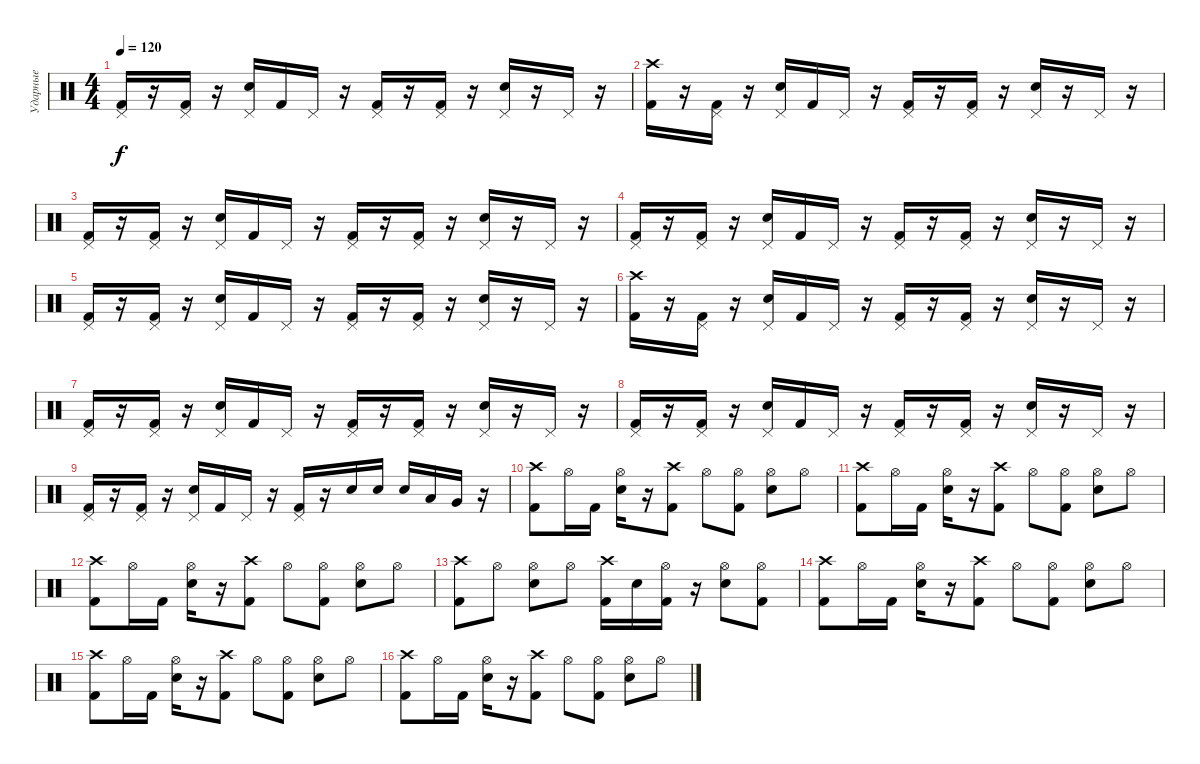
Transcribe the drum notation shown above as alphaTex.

\track ("Ударные" "Ударные") {instrument percussion}
\staff {score}
\articulation defaults
\ts (4 4)
\tempo 120
\clef neutral
\ks c
("Pedal Hi-Hat (hit)" "Kick (hit) 2").16{dy f} r.16 ("Pedal Hi-Hat (hit)" "Kick (hit) 2").16 r.16 ("Pedal Hi-Hat (hit)" "Electric Snare (hit)").16 "Kick (hit) 2".16 "Pedal Hi-Hat (hit)".16 r.16 ("Pedal Hi-Hat (hit)" "Kick (hit) 2").16 r.16 ("Pedal Hi-Hat (hit)" "Kick (hit) 2").16 r.16 ("Pedal Hi-Hat (hit)" "Electric Snare (hit)").16 r.16 "Pedal Hi-Hat (hit)".16 r.16 |
("Crash high (hit)" "Kick (hit) 2").16 r.16 ("Pedal Hi-Hat (hit)" "Kick (hit) 2").16 r.16 ("Pedal Hi-Hat (hit)" "Electric Snare (hit)").16 "Kick (hit) 2".16 "Pedal Hi-Hat (hit)".16 r.16 ("Pedal Hi-Hat (hit)" "Kick (hit) 2").16 r.16 ("Pedal Hi-Hat (hit)" "Kick (hit) 2").16 r.16 ("Pedal Hi-Hat (hit)" "Electric Snare (hit)").16 r.16 "Pedal Hi-Hat (hit)".16 r.16 |
("Pedal Hi-Hat (hit)" "Kick (hit) 2").16 r.16 ("Pedal Hi-Hat (hit)" "Kick (hit) 2").16 r.16 ("Pedal Hi-Hat (hit)" "Electric Snare (hit)").16 "Kick (hit) 2".16 "Pedal Hi-Hat (hit)".16 r.16 ("Pedal Hi-Hat (hit)" "Kick (hit) 2").16 r.16 ("Pedal Hi-Hat (hit)" "Kick (hit) 2").16 r.16 ("Pedal Hi-Hat (hit)" "Electric Snare (hit)").16 r.16 "Pedal Hi-Hat (hit)".16 r.16 |
("Pedal Hi-Hat (hit)" "Kick (hit) 2").16 r.16 ("Pedal Hi-Hat (hit)" "Kick (hit) 2").16 r.16 ("Pedal Hi-Hat (hit)" "Electric Snare (hit)").16 "Kick (hit) 2".16 "Pedal Hi-Hat (hit)".16 r.16 ("Pedal Hi-Hat (hit)" "Kick (hit) 2").16 r.16 ("Pedal Hi-Hat (hit)" "Kick (hit) 2").16 r.16 ("Pedal Hi-Hat (hit)" "Electric Snare (hit)").16 r.16 "Pedal Hi-Hat (hit)".16 r.16 |
("Pedal Hi-Hat (hit)" "Kick (hit) 2").16 r.16 ("Pedal Hi-Hat (hit)" "Kick (hit) 2").16 r.16 ("Pedal Hi-Hat (hit)" "Electric Snare (hit)").16 "Kick (hit) 2".16 "Pedal Hi-Hat (hit)".16 r.16 ("Pedal Hi-Hat (hit)" "Kick (hit) 2").16 r.16 ("Pedal Hi-Hat (hit)" "Kick (hit) 2").16 r.16 ("Pedal Hi-Hat (hit)" "Electric Snare (hit)").16 r.16 "Pedal Hi-Hat (hit)".16 r.16 |
("Crash high (hit)" "Kick (hit) 2").16 r.16 ("Pedal Hi-Hat (hit)" "Kick (hit) 2").16 r.16 ("Pedal Hi-Hat (hit)" "Electric Snare (hit)").16 "Kick (hit) 2".16 "Pedal Hi-Hat (hit)".16 r.16 ("Pedal Hi-Hat (hit)" "Kick (hit) 2").16 r.16 ("Pedal Hi-Hat (hit)" "Kick (hit) 2").16 r.16 ("Pedal Hi-Hat (hit)" "Electric Snare (hit)").16 r.16 "Pedal Hi-Hat (hit)".16 r.16 |
("Pedal Hi-Hat (hit)" "Kick (hit) 2").16 r.16 ("Pedal Hi-Hat (hit)" "Kick (hit) 2").16 r.16 ("Pedal Hi-Hat (hit)" "Electric Snare (hit)").16 "Kick (hit) 2".16 "Pedal Hi-Hat (hit)".16 r.16 ("Pedal Hi-Hat (hit)" "Kick (hit) 2").16 r.16 ("Pedal Hi-Hat (hit)" "Kick (hit) 2").16 r.16 ("Pedal Hi-Hat (hit)" "Electric Snare (hit)").16 r.16 "Pedal Hi-Hat (hit)".16 r.16 |
("Pedal Hi-Hat (hit)" "Kick (hit) 2").16 r.16 ("Pedal Hi-Hat (hit)" "Kick (hit) 2").16 r.16 ("Pedal Hi-Hat (hit)" "Electric Snare (hit)").16 "Kick (hit) 2".16 "Pedal Hi-Hat (hit)".16 r.16 ("Pedal Hi-Hat (hit)" "Kick (hit) 2").16 r.16 ("Pedal Hi-Hat (hit)" "Kick (hit) 2").16 r.16 ("Pedal Hi-Hat (hit)" "Electric Snare (hit)").16 r.16 "Pedal Hi-Hat (hit)".16 r.16 |
("Pedal Hi-Hat (hit)" "Kick (hit) 2").16 r.16 ("Pedal Hi-Hat (hit)" "Kick (hit) 2").16 r.16 ("Pedal Hi-Hat (hit)" "Electric Snare (hit)").16 "Kick (hit) 2".16 "Pedal Hi-Hat (hit)".16 r.16 ("Pedal Hi-Hat (hit)" "Kick (hit) 2").16 r.16 "Electric Snare (hit)".16 "Electric Snare (hit)".16 "Electric Snare (hit)".16 "Low Tom (hit)".16 "Very Low Tom (hit)".16 r.16 |
("Crash high (hit)" "Kick (hit) 2").8 "Hi-Hat (open)".16 "Kick (hit) 2".16 ("Hi-Hat (open)" "Electric Snare (hit)").16 r.16 ("Crash high (hit)" "Kick (hit) 2").8 "Hi-Hat (open)".8 ("Hi-Hat (open)" "Kick (hit) 2").8 ("Hi-Hat (open)" "Electric Snare (hit)").8 "Hi-Hat (open)".8 |
("Crash high (hit)" "Kick (hit) 2").8 "Hi-Hat (open)".16 "Kick (hit) 2".16 ("Hi-Hat (open)" "Electric Snare (hit)").16 r.16 ("Crash high (hit)" "Kick (hit) 2").8 "Hi-Hat (open)".8 ("Hi-Hat (open)" "Kick (hit) 2").8 ("Hi-Hat (open)" "Electric Snare (hit)").8 "Hi-Hat (open)".8 |
("Crash high (hit)" "Kick (hit) 2").8 "Hi-Hat (open)".16 "Kick (hit) 2".16 ("Hi-Hat (open)" "Electric Snare (hit)").16 r.16 ("Crash high (hit)" "Kick (hit) 2").8 "Hi-Hat (open)".8 ("Hi-Hat (open)" "Kick (hit) 2").8 ("Hi-Hat (open)" "Electric Snare (hit)").8 "Hi-Hat (open)".8 |
("Crash high (hit)" "Kick (hit) 2").8 "Hi-Hat (open)".8 ("Hi-Hat (open)" "Electric Snare (hit)").8 "Hi-Hat (open)".8 ("Crash high (hit)" "Kick (hit) 2").16 "Electric Snare (hit)".16 ("Hi-Hat (open)" "Kick (hit) 2").16 r.16 ("Hi-Hat (open)" "Electric Snare (hit)").8 ("Hi-Hat (open)" "Kick (hit) 2").8 |
("Crash high (hit)" "Kick (hit) 2").8 "Hi-Hat (open)".16 "Kick (hit) 2".16 ("Hi-Hat (open)" "Electric Snare (hit)").16 r.16 ("Crash high (hit)" "Kick (hit) 2").8 "Hi-Hat (open)".8 ("Hi-Hat (open)" "Kick (hit) 2").8 ("Hi-Hat (open)" "Electric Snare (hit)").8 "Hi-Hat (open)".8 |
("Crash high (hit)" "Kick (hit) 2").8 "Hi-Hat (open)".16 "Kick (hit) 2".16 ("Hi-Hat (open)" "Electric Snare (hit)").16 r.16 ("Crash high (hit)" "Kick (hit) 2").8 "Hi-Hat (open)".8 ("Hi-Hat (open)" "Kick (hit) 2").8 ("Hi-Hat (open)" "Electric Snare (hit)").8 "Hi-Hat (open)".8 |
("Crash high (hit)" "Kick (hit) 2").8 "Hi-Hat (open)".16 "Kick (hit) 2".16 ("Hi-Hat (open)" "Electric Snare (hit)").16 r.16 ("Crash high (hit)" "Kick (hit) 2").8 "Hi-Hat (open)".8 ("Hi-Hat (open)" "Kick (hit) 2").8 ("Hi-Hat (open)" "Electric Snare (hit)").8 "Hi-Hat (open)".8
